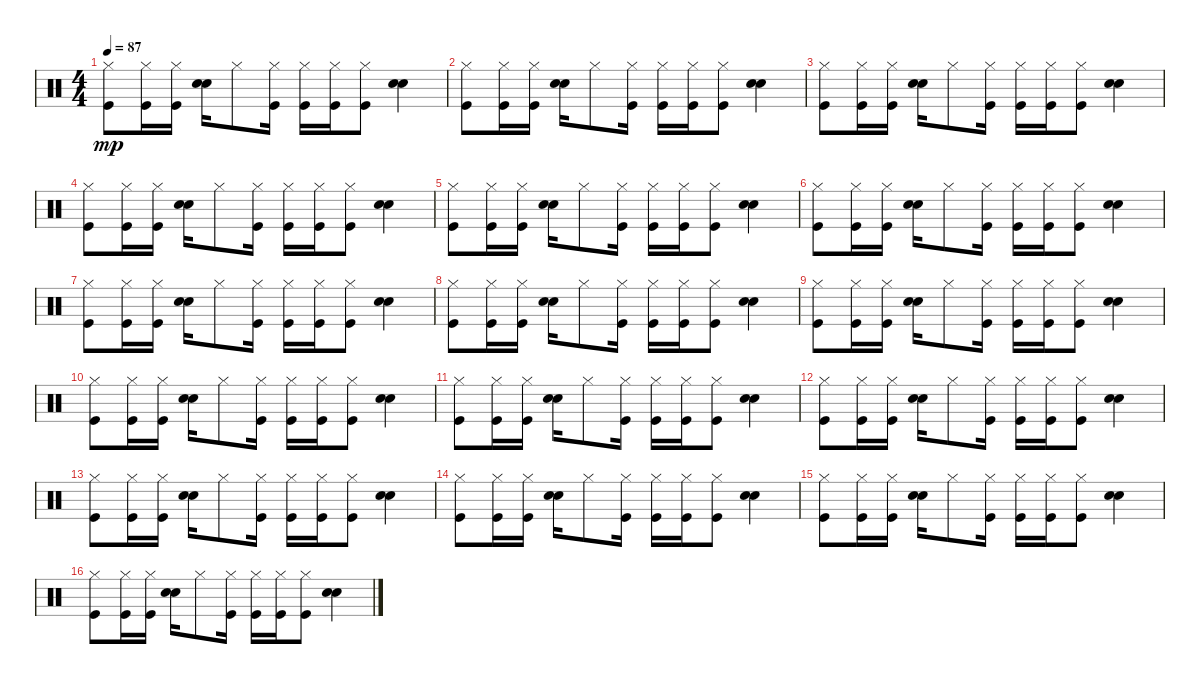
\track "" {instrument percussion}
\staff {score}
\articulation defaults
\ts (4 4)
\tempo 87
\clef neutral
\ks c
("Kick (hit)" "Hi-Hat (closed)").8{dy mp} ("Kick (hit)" "Hi-Hat (closed)").16 ("Kick (hit)" "Hi-Hat (closed)").16 ("Hand Clap (hit)" "Electric Snare (hit)").16 "Hi-Hat (closed)".8 ("Kick (hit)" "Hi-Hat (closed)").16 ("Kick (hit)" "Hi-Hat (closed)").16 ("Kick (hit)" "Hi-Hat (closed)").16 ("Kick (hit)" "Hi-Hat (closed)").8 ("Electric Snare (hit)" "Hand Clap (hit)").4 |
("Kick (hit)" "Hi-Hat (closed)").8 ("Kick (hit)" "Hi-Hat (closed)").16 ("Kick (hit)" "Hi-Hat (closed)").16 ("Hand Clap (hit)" "Electric Snare (hit)").16 "Hi-Hat (closed)".8 ("Kick (hit)" "Hi-Hat (closed)").16 ("Kick (hit)" "Hi-Hat (closed)").16 ("Kick (hit)" "Hi-Hat (closed)").16 ("Kick (hit)" "Hi-Hat (closed)").8 ("Electric Snare (hit)" "Hand Clap (hit)").4 |
("Kick (hit)" "Hi-Hat (closed)").8 ("Kick (hit)" "Hi-Hat (closed)").16 ("Kick (hit)" "Hi-Hat (closed)").16 ("Hand Clap (hit)" "Electric Snare (hit)").16 "Hi-Hat (closed)".8 ("Kick (hit)" "Hi-Hat (closed)").16 ("Kick (hit)" "Hi-Hat (closed)").16 ("Kick (hit)" "Hi-Hat (closed)").16 ("Kick (hit)" "Hi-Hat (closed)").8 ("Electric Snare (hit)" "Hand Clap (hit)").4 |
("Kick (hit)" "Hi-Hat (closed)").8 ("Kick (hit)" "Hi-Hat (closed)").16 ("Kick (hit)" "Hi-Hat (closed)").16 ("Hand Clap (hit)" "Electric Snare (hit)").16 "Hi-Hat (closed)".8 ("Kick (hit)" "Hi-Hat (closed)").16 ("Kick (hit)" "Hi-Hat (closed)").16 ("Kick (hit)" "Hi-Hat (closed)").16 ("Kick (hit)" "Hi-Hat (closed)").8 ("Electric Snare (hit)" "Hand Clap (hit)").4 |
("Kick (hit)" "Hi-Hat (closed)").8 ("Kick (hit)" "Hi-Hat (closed)").16 ("Kick (hit)" "Hi-Hat (closed)").16 ("Hand Clap (hit)" "Electric Snare (hit)").16 "Hi-Hat (closed)".8 ("Kick (hit)" "Hi-Hat (closed)").16 ("Kick (hit)" "Hi-Hat (closed)").16 ("Kick (hit)" "Hi-Hat (closed)").16 ("Kick (hit)" "Hi-Hat (closed)").8 ("Electric Snare (hit)" "Hand Clap (hit)").4 |
("Kick (hit)" "Hi-Hat (closed)").8 ("Kick (hit)" "Hi-Hat (closed)").16 ("Kick (hit)" "Hi-Hat (closed)").16 ("Hand Clap (hit)" "Electric Snare (hit)").16 "Hi-Hat (closed)".8 ("Kick (hit)" "Hi-Hat (closed)").16 ("Kick (hit)" "Hi-Hat (closed)").16 ("Kick (hit)" "Hi-Hat (closed)").16 ("Kick (hit)" "Hi-Hat (closed)").8 ("Electric Snare (hit)" "Hand Clap (hit)").4 |
("Kick (hit)" "Hi-Hat (closed)").8 ("Kick (hit)" "Hi-Hat (closed)").16 ("Kick (hit)" "Hi-Hat (closed)").16 ("Hand Clap (hit)" "Electric Snare (hit)").16 "Hi-Hat (closed)".8 ("Kick (hit)" "Hi-Hat (closed)").16 ("Kick (hit)" "Hi-Hat (closed)").16 ("Kick (hit)" "Hi-Hat (closed)").16 ("Kick (hit)" "Hi-Hat (closed)").8 ("Electric Snare (hit)" "Hand Clap (hit)").4 |
("Kick (hit)" "Hi-Hat (closed)").8 ("Kick (hit)" "Hi-Hat (closed)").16 ("Kick (hit)" "Hi-Hat (closed)").16 ("Hand Clap (hit)" "Electric Snare (hit)").16 "Hi-Hat (closed)".8 ("Kick (hit)" "Hi-Hat (closed)").16 ("Kick (hit)" "Hi-Hat (closed)").16 ("Kick (hit)" "Hi-Hat (closed)").16 ("Kick (hit)" "Hi-Hat (closed)").8 ("Electric Snare (hit)" "Hand Clap (hit)").4 |
("Kick (hit)" "Hi-Hat (closed)").8 ("Kick (hit)" "Hi-Hat (closed)").16 ("Kick (hit)" "Hi-Hat (closed)").16 ("Hand Clap (hit)" "Electric Snare (hit)").16 "Hi-Hat (closed)".8 ("Kick (hit)" "Hi-Hat (closed)").16 ("Kick (hit)" "Hi-Hat (closed)").16 ("Kick (hit)" "Hi-Hat (closed)").16 ("Kick (hit)" "Hi-Hat (closed)").8 ("Electric Snare (hit)" "Hand Clap (hit)").4 |
("Kick (hit)" "Hi-Hat (closed)").8 ("Kick (hit)" "Hi-Hat (closed)").16 ("Kick (hit)" "Hi-Hat (closed)").16 ("Hand Clap (hit)" "Electric Snare (hit)").16 "Hi-Hat (closed)".8 ("Kick (hit)" "Hi-Hat (closed)").16 ("Kick (hit)" "Hi-Hat (closed)").16 ("Kick (hit)" "Hi-Hat (closed)").16 ("Kick (hit)" "Hi-Hat (closed)").8 ("Electric Snare (hit)" "Hand Clap (hit)").4 |
("Kick (hit)" "Hi-Hat (closed)").8 ("Kick (hit)" "Hi-Hat (closed)").16 ("Kick (hit)" "Hi-Hat (closed)").16 ("Hand Clap (hit)" "Electric Snare (hit)").16 "Hi-Hat (closed)".8 ("Kick (hit)" "Hi-Hat (closed)").16 ("Kick (hit)" "Hi-Hat (closed)").16 ("Kick (hit)" "Hi-Hat (closed)").16 ("Kick (hit)" "Hi-Hat (closed)").8 ("Electric Snare (hit)" "Hand Clap (hit)").4 |
("Kick (hit)" "Hi-Hat (closed)").8 ("Kick (hit)" "Hi-Hat (closed)").16 ("Kick (hit)" "Hi-Hat (closed)").16 ("Hand Clap (hit)" "Electric Snare (hit)").16 "Hi-Hat (closed)".8 ("Kick (hit)" "Hi-Hat (closed)").16 ("Kick (hit)" "Hi-Hat (closed)").16 ("Kick (hit)" "Hi-Hat (closed)").16 ("Kick (hit)" "Hi-Hat (closed)").8 ("Electric Snare (hit)" "Hand Clap (hit)").4 |
("Kick (hit)" "Hi-Hat (closed)").8 ("Kick (hit)" "Hi-Hat (closed)").16 ("Kick (hit)" "Hi-Hat (closed)").16 ("Hand Clap (hit)" "Electric Snare (hit)").16 "Hi-Hat (closed)".8 ("Kick (hit)" "Hi-Hat (closed)").16 ("Kick (hit)" "Hi-Hat (closed)").16 ("Kick (hit)" "Hi-Hat (closed)").16 ("Kick (hit)" "Hi-Hat (closed)").8 ("Electric Snare (hit)" "Hand Clap (hit)").4 |
("Kick (hit)" "Hi-Hat (closed)").8 ("Kick (hit)" "Hi-Hat (closed)").16 ("Kick (hit)" "Hi-Hat (closed)").16 ("Hand Clap (hit)" "Electric Snare (hit)").16 "Hi-Hat (closed)".8 ("Kick (hit)" "Hi-Hat (closed)").16 ("Kick (hit)" "Hi-Hat (closed)").16 ("Kick (hit)" "Hi-Hat (closed)").16 ("Kick (hit)" "Hi-Hat (closed)").8 ("Electric Snare (hit)" "Hand Clap (hit)").4 |
("Kick (hit)" "Hi-Hat (closed)").8 ("Kick (hit)" "Hi-Hat (closed)").16 ("Kick (hit)" "Hi-Hat (closed)").16 ("Hand Clap (hit)" "Electric Snare (hit)").16 "Hi-Hat (closed)".8 ("Kick (hit)" "Hi-Hat (closed)").16 ("Kick (hit)" "Hi-Hat (closed)").16 ("Kick (hit)" "Hi-Hat (closed)").16 ("Kick (hit)" "Hi-Hat (closed)").8 ("Electric Snare (hit)" "Hand Clap (hit)").4 |
("Kick (hit)" "Hi-Hat (closed)").8 ("Kick (hit)" "Hi-Hat (closed)").16 ("Kick (hit)" "Hi-Hat (closed)").16 ("Hand Clap (hit)" "Electric Snare (hit)").16 "Hi-Hat (closed)".8 ("Kick (hit)" "Hi-Hat (closed)").16 ("Kick (hit)" "Hi-Hat (closed)").16 ("Kick (hit)" "Hi-Hat (closed)").16 ("Kick (hit)" "Hi-Hat (closed)").8 ("Electric Snare (hit)" "Hand Clap (hit)").4
